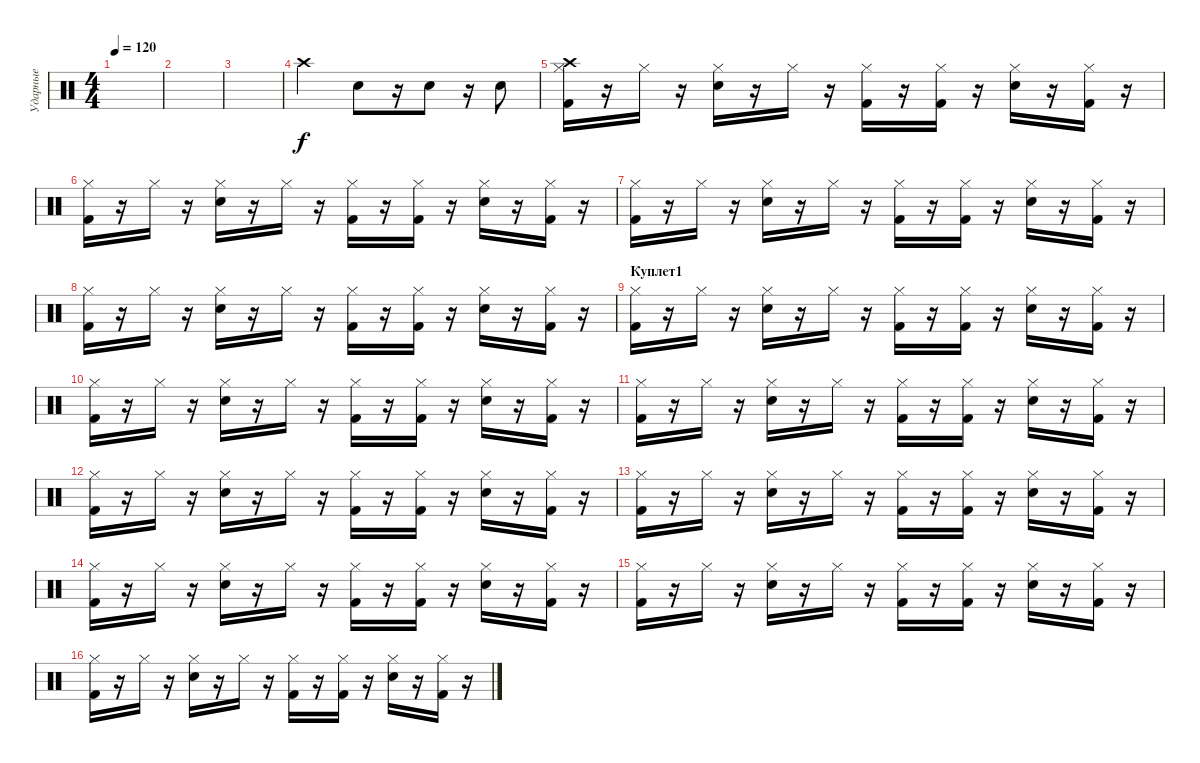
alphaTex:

\track ("Ударные" "Ударные") {instrument percussion}
\staff {score}
\articulation defaults
\ts (4 4)
\tempo 120
\clef neutral
\ks c
|
|
|
"Crash high (hit)".2 "Snare (hit) 2".8 r.16 "Snare (hit) 2".8 r.16 "Snare (hit) 2".8 |
("Hi-Hat (closed)" "Kick (hit) 2" "Crash high (hit)").16 r.16 "Hi-Hat (closed)".16 r.16 ("Hi-Hat (closed)" "Snare (hit) 2").16 r.16 "Hi-Hat (closed)".16 r.16 ("Hi-Hat (closed)" "Kick (hit) 2").16 r.16 ("Hi-Hat (closed)" "Kick (hit) 2").16 r.16 ("Hi-Hat (closed)" "Snare (hit) 2").16 r.16 ("Hi-Hat (closed)" "Kick (hit) 2").16 r.16 |
("Hi-Hat (closed)" "Kick (hit) 2").16 r.16 "Hi-Hat (closed)".16 r.16 ("Hi-Hat (closed)" "Snare (hit) 2").16 r.16 "Hi-Hat (closed)".16 r.16 ("Hi-Hat (closed)" "Kick (hit) 2").16 r.16 ("Hi-Hat (closed)" "Kick (hit) 2").16 r.16 ("Hi-Hat (closed)" "Snare (hit) 2").16 r.16 ("Hi-Hat (closed)" "Kick (hit) 2").16 r.16 |
("Hi-Hat (closed)" "Kick (hit) 2").16 r.16 "Hi-Hat (closed)".16 r.16 ("Hi-Hat (closed)" "Snare (hit) 2").16 r.16 "Hi-Hat (closed)".16 r.16 ("Hi-Hat (closed)" "Kick (hit) 2").16 r.16 ("Hi-Hat (closed)" "Kick (hit) 2").16 r.16 ("Hi-Hat (closed)" "Snare (hit) 2").16 r.16 ("Hi-Hat (closed)" "Kick (hit) 2").16 r.16 |
("Hi-Hat (closed)" "Kick (hit) 2").16 r.16 "Hi-Hat (closed)".16 r.16 ("Hi-Hat (closed)" "Snare (hit) 2").16 r.16 "Hi-Hat (closed)".16 r.16 ("Hi-Hat (closed)" "Kick (hit) 2").16 r.16 ("Hi-Hat (closed)" "Kick (hit) 2").16 r.16 ("Hi-Hat (closed)" "Snare (hit) 2").16 r.16 ("Hi-Hat (closed)" "Kick (hit) 2").16 r.16 |
\section ("" "Куплет1")
("Hi-Hat (closed)" "Kick (hit) 2").16 r.16 "Hi-Hat (closed)".16 r.16 ("Hi-Hat (closed)" "Snare (hit) 2").16 r.16 "Hi-Hat (closed)".16 r.16 ("Hi-Hat (closed)" "Kick (hit) 2").16 r.16 ("Hi-Hat (closed)" "Kick (hit) 2").16 r.16 ("Hi-Hat (closed)" "Snare (hit) 2").16 r.16 ("Hi-Hat (closed)" "Kick (hit) 2").16 r.16 |
("Hi-Hat (closed)" "Kick (hit) 2").16 r.16 "Hi-Hat (closed)".16 r.16 ("Hi-Hat (closed)" "Snare (hit) 2").16 r.16 "Hi-Hat (closed)".16 r.16 ("Hi-Hat (closed)" "Kick (hit) 2").16 r.16 ("Hi-Hat (closed)" "Kick (hit) 2").16 r.16 ("Hi-Hat (closed)" "Snare (hit) 2").16 r.16 ("Hi-Hat (closed)" "Kick (hit) 2").16 r.16 |
("Hi-Hat (closed)" "Kick (hit) 2").16 r.16 "Hi-Hat (closed)".16 r.16 ("Hi-Hat (closed)" "Snare (hit) 2").16 r.16 "Hi-Hat (closed)".16 r.16 ("Hi-Hat (closed)" "Kick (hit) 2").16 r.16 ("Hi-Hat (closed)" "Kick (hit) 2").16 r.16 ("Hi-Hat (closed)" "Snare (hit) 2").16 r.16 ("Hi-Hat (closed)" "Kick (hit) 2").16 r.16 |
("Hi-Hat (closed)" "Kick (hit) 2").16 r.16 "Hi-Hat (closed)".16 r.16 ("Hi-Hat (closed)" "Snare (hit) 2").16 r.16 "Hi-Hat (closed)".16 r.16 ("Hi-Hat (closed)" "Kick (hit) 2").16 r.16 ("Hi-Hat (closed)" "Kick (hit) 2").16 r.16 ("Hi-Hat (closed)" "Snare (hit) 2").16 r.16 ("Hi-Hat (closed)" "Kick (hit) 2").16 r.16 |
("Hi-Hat (closed)" "Kick (hit) 2").16 r.16 "Hi-Hat (closed)".16 r.16 ("Hi-Hat (closed)" "Snare (hit) 2").16 r.16 "Hi-Hat (closed)".16 r.16 ("Hi-Hat (closed)" "Kick (hit) 2").16 r.16 ("Hi-Hat (closed)" "Kick (hit) 2").16 r.16 ("Hi-Hat (closed)" "Snare (hit) 2").16 r.16 ("Hi-Hat (closed)" "Kick (hit) 2").16 r.16 |
("Hi-Hat (closed)" "Kick (hit) 2").16 r.16 "Hi-Hat (closed)".16 r.16 ("Hi-Hat (closed)" "Snare (hit) 2").16 r.16 "Hi-Hat (closed)".16 r.16 ("Hi-Hat (closed)" "Kick (hit) 2").16 r.16 ("Hi-Hat (closed)" "Kick (hit) 2").16 r.16 ("Hi-Hat (closed)" "Snare (hit) 2").16 r.16 ("Hi-Hat (closed)" "Kick (hit) 2").16 r.16 |
("Hi-Hat (closed)" "Kick (hit) 2").16 r.16 "Hi-Hat (closed)".16 r.16 ("Hi-Hat (closed)" "Snare (hit) 2").16 r.16 "Hi-Hat (closed)".16 r.16 ("Hi-Hat (closed)" "Kick (hit) 2").16 r.16 ("Hi-Hat (closed)" "Kick (hit) 2").16 r.16 ("Hi-Hat (closed)" "Snare (hit) 2").16 r.16 ("Hi-Hat (closed)" "Kick (hit) 2").16 r.16 |
("Hi-Hat (closed)" "Kick (hit) 2").16 r.16 "Hi-Hat (closed)".16 r.16 ("Hi-Hat (closed)" "Snare (hit) 2").16 r.16 "Hi-Hat (closed)".16 r.16 ("Hi-Hat (closed)" "Kick (hit) 2").16 r.16 ("Hi-Hat (closed)" "Kick (hit) 2").16 r.16 ("Hi-Hat (closed)" "Snare (hit) 2").16 r.16 ("Hi-Hat (closed)" "Kick (hit) 2").16 r.16
